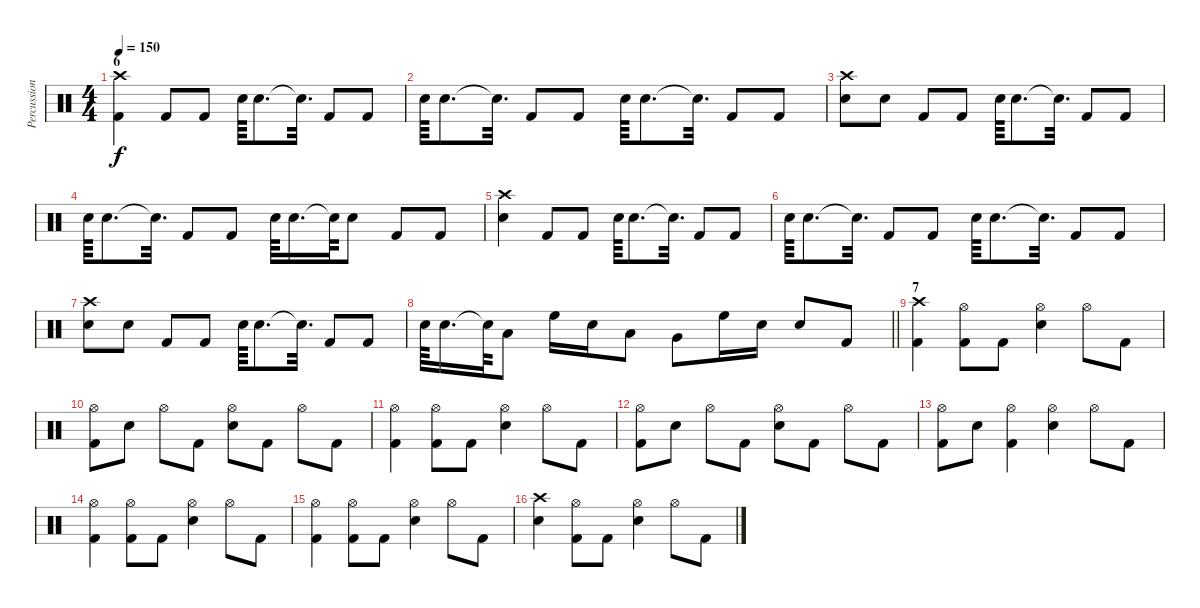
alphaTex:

\track ("Percussion" "Percussion") {instrument percussion}
\staff {score}
\articulation defaults
\ts (4 4)
\section ("" "6")
\tempo 150
\clef neutral
\ks c
("Crash high (hit)" "Kick (hit) 2").4{dy f} "Kick (hit) 2".8 "Kick (hit) 2".8 "Snare (hit) 2".64 "Snare (hit) 2".8{d} "Snare (hit)"{t}.32{d} "Kick (hit) 2".8 "Kick (hit) 2".8 |
"Snare (hit) 2".64 "Snare (hit) 2".8{d} "Snare (hit)"{t}.32{d} "Kick (hit) 2".8 "Kick (hit) 2".8 "Snare (hit) 2".64 "Snare (hit) 2".8{d} "Snare (hit)"{t}.32{d} "Kick (hit) 2".8 "Kick (hit) 2".8 |
("Crash high (hit)" "Snare (hit) 2").8 "Snare (hit) 2".8 "Kick (hit) 2".8 "Kick (hit) 2".8 "Snare (hit) 2".64 "Snare (hit) 2".8{d} "Snare (hit)"{t}.32{d} "Kick (hit) 2".8 "Kick (hit) 2".8 |
"Snare (hit) 2".64 "Snare (hit) 2".8{d} "Snare (hit)"{t}.32{d} "Kick (hit) 2".8 "Kick (hit) 2".8 "Snare (hit) 2".64 "Snare (hit) 2".16{d} "Snare (hit)"{t}.64 "Snare (hit) 2".8 "Kick (hit) 2".8 "Kick (hit) 2".8 |
("Crash high (hit)" "Snare (hit) 2").4 "Kick (hit) 2".8 "Kick (hit) 2".8 "Snare (hit) 2".64 "Snare (hit) 2".8{d} "Snare (hit)"{t}.32{d} "Kick (hit) 2".8 "Kick (hit) 2".8 |
"Snare (hit) 2".64 "Snare (hit) 2".8{d} "Snare (hit)"{t}.32{d} "Kick (hit) 2".8 "Kick (hit) 2".8 "Snare (hit) 2".64 "Snare (hit) 2".8{d} "Snare (hit)"{t}.32{d} "Kick (hit) 2".8 "Kick (hit) 2".8 |
("Crash high (hit)" "Snare (hit) 2").8 "Snare (hit) 2".8 "Kick (hit) 2".8 "Kick (hit) 2".8 "Snare (hit) 2".64 "Snare (hit) 2".8{d} "Snare (hit)"{t}.32{d} "Kick (hit) 2".8 "Kick (hit) 2".8 |
\barLineRight lightlight "Snare (hit) 2".64 "Snare (hit) 2".16{d} "Snare (hit)"{t}.64 "Low Floor Tom (hit)".8 "High Floor Tom (hit)".16 "Snare (hit) 2".16 "Low Tom (hit)".8 "Very Low Tom (hit)".8 "High Floor Tom (hit)".16 "Snare (hit) 2".16 "Snare (hit) 2".8 "Kick (hit) 2".8
|
\section ("" "7")
("Crash high (hit)" "Kick (hit) 2").4 ("Hi-Hat (open)" "Kick (hit) 2").8 "Kick (hit) 2".8 ("Hi-Hat (open)" "Snare (hit) 2").4 "Hi-Hat (open)".8 "Kick (hit) 2".8 |
("Hi-Hat (open)" "Kick (hit) 2").8 "Snare (hit) 2".8 "Hi-Hat (open)".8 "Kick (hit) 2".8 ("Hi-Hat (open)" "Snare (hit) 2").8 "Kick (hit) 2".8 "Hi-Hat (open)".8 "Kick (hit) 2".8 |
("Hi-Hat (open)" "Kick (hit) 2").4 ("Hi-Hat (open)" "Kick (hit) 2").8 "Kick (hit) 2".8 ("Hi-Hat (open)" "Snare (hit) 2").4 "Hi-Hat (open)".8 "Kick (hit) 2".8 |
("Hi-Hat (open)" "Kick (hit) 2").8 "Snare (hit) 2".8 "Hi-Hat (open)".8 "Kick (hit) 2".8 ("Hi-Hat (open)" "Snare (hit) 2").8 "Kick (hit) 2".8 "Hi-Hat (open)".8 "Kick (hit) 2".8 |
("Hi-Hat (open)" "Kick (hit) 2").8 "Snare (hit) 2".8 ("Hi-Hat (open)" "Kick (hit) 2").4 ("Hi-Hat (open)" "Snare (hit) 2").4 "Hi-Hat (open)".8 "Kick (hit) 2".8 |
("Hi-Hat (open)" "Kick (hit) 2").4 ("Hi-Hat (open)" "Kick (hit) 2").8 "Kick (hit) 2".8 ("Hi-Hat (open)" "Snare (hit) 2").4 "Hi-Hat (open)".8 "Kick (hit) 2".8 |
("Hi-Hat (open)" "Kick (hit) 2").4 ("Hi-Hat (open)" "Kick (hit) 2").8 "Kick (hit) 2".8 ("Hi-Hat (open)" "Snare (hit) 2").4 "Hi-Hat (open)".8 "Kick (hit) 2".8 |
("Crash high (hit)" "Snare (hit) 2").4 ("Hi-Hat (open)" "Kick (hit) 2").8 "Kick (hit) 2".8 ("Hi-Hat (open)" "Snare (hit) 2").4 "Hi-Hat (open)".8 "Kick (hit) 2".8
